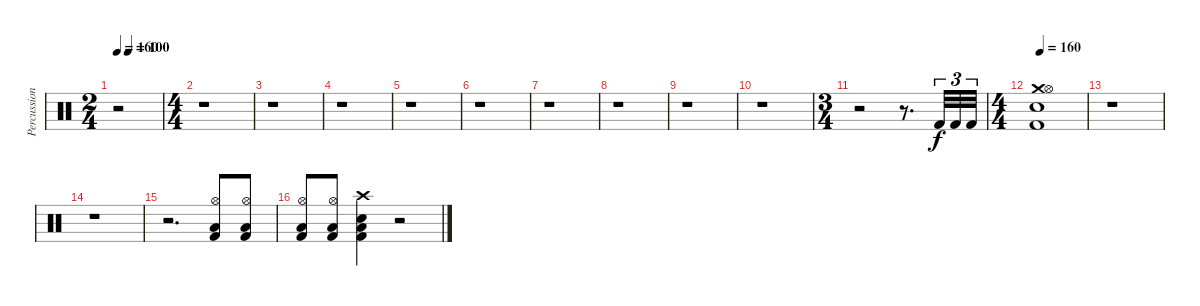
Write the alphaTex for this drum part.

\track ("Percussion" "Percussion") {instrument percussion}
\staff {score}
\articulation defaults
\ts (2 4)
\tempo 160
\tempo (100 0.25)
\tempo 160
\clef neutral
\ks c
r.2{dy f} |
\ts (4 4)
r.1 |
r.1 |
r.1 |
r.1 |
r.1 |
r.1 |
r.1 |
r.1 |
r.1 |
\ts (3 4)
r.2 r.8{d} "Kick (hit) 2".32{tu (3 2)} "Kick (hit) 2".32{tu (3 2)} "Kick (hit) 2".32{tu (3 2)} |
\ts (4 4)
\tempo 160
("Crash medium (hit)" "Hi-Hat (open)" "Electric Snare (hit)" "Kick (hit) 2").1 |
r.1 |
r.1 |
r.2{d} ("Hi-Hat (open)" "Low Floor Tom (hit)" "Kick (hit) 2").8 ("Hi-Hat (open)" "Low Floor Tom (hit)" "Kick (hit) 2").8 |
("Hi-Hat (open)" "Low Floor Tom (hit)" "Kick (hit) 2").8 ("Hi-Hat (open)" "Low Floor Tom (hit)" "Kick (hit) 2").8 ("Crash high (hit)" "Low Floor Tom (hit)" "Electric Snare (hit)" "Kick (hit) 2").4 r.2
